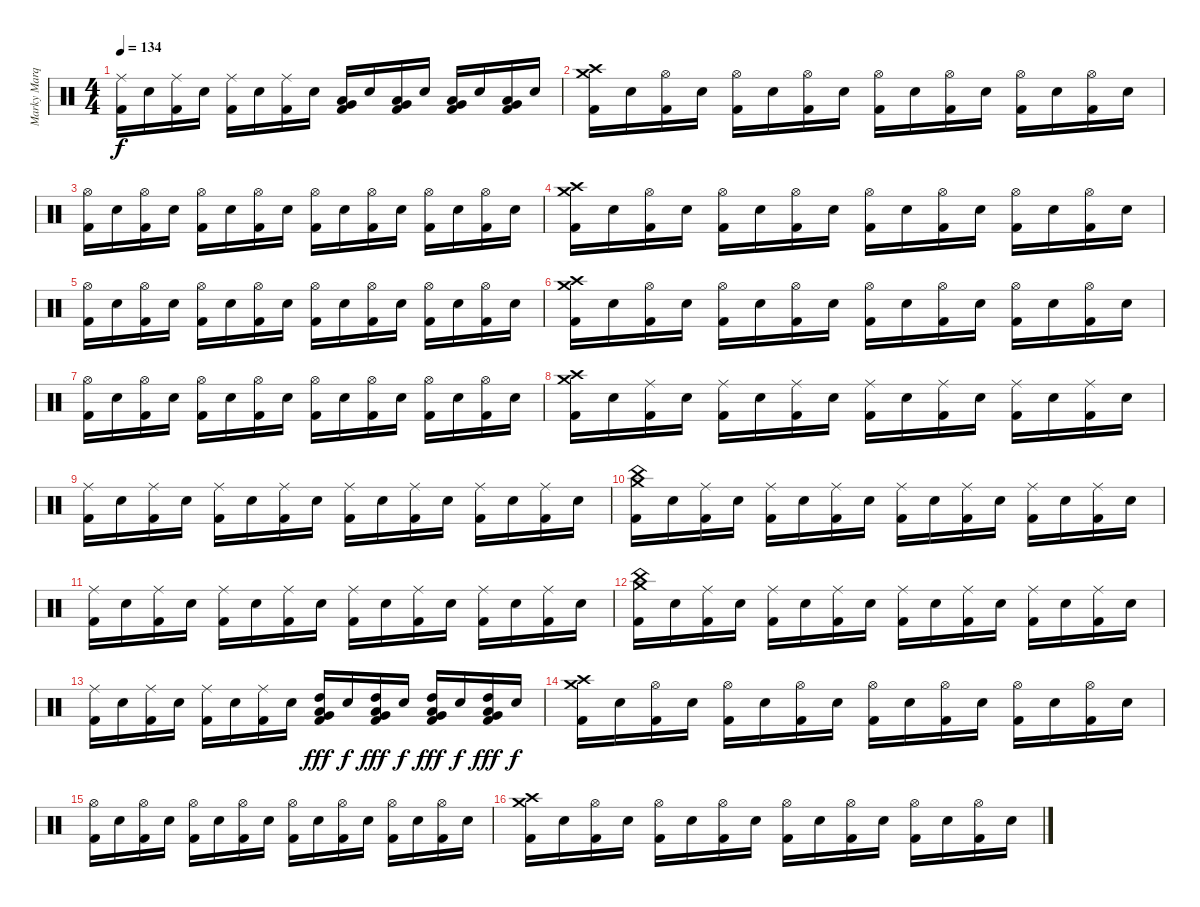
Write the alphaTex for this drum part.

\track ("Marky Marquis" "Marky Marq") {instrument percussion}
\staff {score}
\articulation defaults
\ts (4 4)
\tempo 134
\clef neutral
\ks c
("Ride (middle)" "Kick (hit) 2").16{dy f} "Electric Snare (hit)".16 ("Ride (middle)" "Kick (hit) 2").16 "Electric Snare (hit)".16 ("Ride (middle)" "Kick (hit) 2").16 "Electric Snare (hit)".16 ("Ride (middle)" "Kick (hit) 2").16 "Electric Snare (hit)".16 ("Low Tom (hit)" "Very Low Tom (hit)" "Kick (hit) 2").16 "Electric Snare (hit)".16 ("Low Tom (hit)" "Very Low Tom (hit)" "Kick (hit) 2").16 "Electric Snare (hit)".16 ("Low Tom (hit)" "Very Low Tom (hit)" "Kick (hit) 2").16 "Electric Snare (hit)".16 ("Low Tom (hit)" "Very Low Tom (hit)" "Kick (hit) 2").16 "Electric Snare (hit)".16 |
("Crash medium (hit)" "Crash high (hit)" "Kick (hit) 2").16 "Electric Snare (hit)".16 ("Hi-Hat (open)" "Kick (hit) 2").16 "Electric Snare (hit)".16 ("Hi-Hat (open)" "Kick (hit) 2").16 "Electric Snare (hit)".16 ("Hi-Hat (open)" "Kick (hit) 2").16 "Electric Snare (hit)".16 ("Hi-Hat (open)" "Kick (hit) 2").16 "Electric Snare (hit)".16 ("Hi-Hat (open)" "Kick (hit) 2").16 "Electric Snare (hit)".16 ("Hi-Hat (open)" "Kick (hit) 2").16 "Electric Snare (hit)".16 ("Hi-Hat (open)" "Kick (hit) 2").16 "Electric Snare (hit)".16 |
("Hi-Hat (open)" "Kick (hit) 2").16 "Electric Snare (hit)".16 ("Hi-Hat (open)" "Kick (hit) 2").16 "Electric Snare (hit)".16 ("Hi-Hat (open)" "Kick (hit) 2").16 "Electric Snare (hit)".16 ("Hi-Hat (open)" "Kick (hit) 2").16 "Electric Snare (hit)".16 ("Hi-Hat (open)" "Kick (hit) 2").16 "Electric Snare (hit)".16 ("Hi-Hat (open)" "Kick (hit) 2").16 "Electric Snare (hit)".16 ("Hi-Hat (open)" "Kick (hit) 2").16 "Electric Snare (hit)".16 ("Hi-Hat (open)" "Kick (hit) 2").16 "Electric Snare (hit)".16 |
("Crash medium (hit)" "Crash high (hit)" "Kick (hit) 2").16 "Electric Snare (hit)".16 ("Hi-Hat (open)" "Kick (hit) 2").16 "Electric Snare (hit)".16 ("Hi-Hat (open)" "Kick (hit) 2").16 "Electric Snare (hit)".16 ("Hi-Hat (open)" "Kick (hit) 2").16 "Electric Snare (hit)".16 ("Hi-Hat (open)" "Kick (hit) 2").16 "Electric Snare (hit)".16 ("Hi-Hat (open)" "Kick (hit) 2").16 "Electric Snare (hit)".16 ("Hi-Hat (open)" "Kick (hit) 2").16 "Electric Snare (hit)".16 ("Hi-Hat (open)" "Kick (hit) 2").16 "Electric Snare (hit)".16 |
("Hi-Hat (open)" "Kick (hit) 2").16 "Electric Snare (hit)".16 ("Hi-Hat (open)" "Kick (hit) 2").16 "Electric Snare (hit)".16 ("Hi-Hat (open)" "Kick (hit) 2").16 "Electric Snare (hit)".16 ("Hi-Hat (open)" "Kick (hit) 2").16 "Electric Snare (hit)".16 ("Hi-Hat (open)" "Kick (hit) 2").16 "Electric Snare (hit)".16 ("Hi-Hat (open)" "Kick (hit) 2").16 "Electric Snare (hit)".16 ("Hi-Hat (open)" "Kick (hit) 2").16 "Electric Snare (hit)".16 ("Hi-Hat (open)" "Kick (hit) 2").16 "Electric Snare (hit)".16 |
("Crash medium (hit)" "Crash high (hit)" "Kick (hit) 2").16 "Electric Snare (hit)".16 ("Hi-Hat (open)" "Kick (hit) 2").16 "Electric Snare (hit)".16 ("Hi-Hat (open)" "Kick (hit) 2").16 "Electric Snare (hit)".16 ("Hi-Hat (open)" "Kick (hit) 2").16 "Electric Snare (hit)".16 ("Hi-Hat (open)" "Kick (hit) 2").16 "Electric Snare (hit)".16 ("Hi-Hat (open)" "Kick (hit) 2").16 "Electric Snare (hit)".16 ("Hi-Hat (open)" "Kick (hit) 2").16 "Electric Snare (hit)".16 ("Hi-Hat (open)" "Kick (hit) 2").16 "Electric Snare (hit)".16 |
("Hi-Hat (open)" "Kick (hit) 2").16 "Electric Snare (hit)".16 ("Hi-Hat (open)" "Kick (hit) 2").16 "Electric Snare (hit)".16 ("Hi-Hat (open)" "Kick (hit) 2").16 "Electric Snare (hit)".16 ("Hi-Hat (open)" "Kick (hit) 2").16 "Electric Snare (hit)".16 ("Hi-Hat (open)" "Kick (hit) 2").16 "Electric Snare (hit)".16 ("Hi-Hat (open)" "Kick (hit) 2").16 "Electric Snare (hit)".16 ("Hi-Hat (open)" "Kick (hit) 2").16 "Electric Snare (hit)".16 ("Hi-Hat (open)" "Kick (hit) 2").16 "Electric Snare (hit)".16 |
("Crash high (hit)" "Crash medium (hit)" "Kick (hit) 2").16 "Electric Snare (hit)".16 ("Ride (middle)" "Kick (hit) 2").16 "Electric Snare (hit)".16 ("Ride (middle)" "Kick (hit) 2").16 "Electric Snare (hit)".16 ("Ride (middle)" "Kick (hit) 2").16 "Electric Snare (hit)".16 ("Ride (middle)" "Kick (hit) 2").16 "Electric Snare (hit)".16 ("Ride (middle)" "Kick (hit) 2").16 "Electric Snare (hit)".16 ("Ride (middle)" "Kick (hit) 2").16 "Electric Snare (hit)".16 ("Ride (middle)" "Kick (hit) 2").16 "Electric Snare (hit)".16 |
("Ride (middle)" "Kick (hit) 2").16 "Electric Snare (hit)".16 ("Ride (middle)" "Kick (hit) 2").16 "Electric Snare (hit)".16 ("Ride (middle)" "Kick (hit) 2").16 "Electric Snare (hit)".16 ("Ride (middle)" "Kick (hit) 2").16 "Electric Snare (hit)".16 ("Ride (middle)" "Kick (hit) 2").16 "Electric Snare (hit)".16 ("Ride (middle)" "Kick (hit) 2").16 "Electric Snare (hit)".16 ("Ride (middle)" "Kick (hit) 2").16 "Electric Snare (hit)".16 ("Ride (middle)" "Kick (hit) 2").16 "Electric Snare (hit)".16 |
("Crash medium (hit)" "China (hit)" "Kick (hit) 2").16 "Electric Snare (hit)".16 ("Ride (middle)" "Kick (hit) 2").16 "Electric Snare (hit)".16 ("Ride (middle)" "Kick (hit) 2").16 "Electric Snare (hit)".16 ("Ride (middle)" "Kick (hit) 2").16 "Electric Snare (hit)".16 ("Ride (middle)" "Kick (hit) 2").16 "Electric Snare (hit)".16 ("Ride (middle)" "Kick (hit) 2").16 "Electric Snare (hit)".16 ("Ride (middle)" "Kick (hit) 2").16 "Electric Snare (hit)".16 ("Ride (middle)" "Kick (hit) 2").16 "Electric Snare (hit)".16 |
("Ride (middle)" "Kick (hit) 2").16 "Electric Snare (hit)".16 ("Ride (middle)" "Kick (hit) 2").16 "Electric Snare (hit)".16 ("Ride (middle)" "Kick (hit) 2").16 "Electric Snare (hit)".16 ("Ride (middle)" "Kick (hit) 2").16 "Electric Snare (hit)".16 ("Ride (middle)" "Kick (hit) 2").16 "Electric Snare (hit)".16 ("Ride (middle)" "Kick (hit) 2").16 "Electric Snare (hit)".16 ("Ride (middle)" "Kick (hit) 2").16 "Electric Snare (hit)".16 ("Ride (middle)" "Kick (hit) 2").16 "Electric Snare (hit)".16 |
("Crash medium (hit)" "China (hit)" "Kick (hit) 2").16 "Electric Snare (hit)".16 ("Ride (middle)" "Kick (hit) 2").16 "Electric Snare (hit)".16 ("Ride (middle)" "Kick (hit) 2").16 "Electric Snare (hit)".16 ("Ride (middle)" "Kick (hit) 2").16 "Electric Snare (hit)".16 ("Ride (middle)" "Kick (hit) 2").16 "Electric Snare (hit)".16 ("Ride (middle)" "Kick (hit) 2").16 "Electric Snare (hit)".16 ("Ride (middle)" "Kick (hit) 2").16 "Electric Snare (hit)".16 ("Ride (middle)" "Kick (hit) 2").16 "Electric Snare (hit)".16 |
("Ride (middle)" "Kick (hit) 2").16 "Electric Snare (hit)".16 ("Ride (middle)" "Kick (hit) 2").16 "Electric Snare (hit)".16 ("Ride (middle)" "Kick (hit) 2").16 "Electric Snare (hit)".16 ("Ride (middle)" "Kick (hit) 2").16 "Electric Snare (hit)".16 ("High Tom (hit)" "Low Tom (hit)" "Very Low Tom (hit)" "Kick (hit) 2").16{dy fff} "Electric Snare (hit)".16{dy f} ("High Tom (hit)" "Low Tom (hit)" "Very Low Tom (hit)" "Kick (hit) 2").16{dy fff} "Electric Snare (hit)".16{dy f} ("High Tom (hit)" "Low Tom (hit)" "Very Low Tom (hit)" "Kick (hit) 2").16{dy fff} "Electric Snare (hit)".16{dy f} ("High Tom (hit)" "Low Tom (hit)" "Very Low Tom (hit)" "Kick (hit) 2").16{dy fff} "Electric Snare (hit)".16{dy f} |
("Crash medium (hit)" "Crash high (hit)" "Kick (hit) 2").16 "Electric Snare (hit)".16 ("Hi-Hat (open)" "Kick (hit) 2").16 "Electric Snare (hit)".16 ("Hi-Hat (open)" "Kick (hit) 2").16 "Electric Snare (hit)".16 ("Hi-Hat (open)" "Kick (hit) 2").16 "Electric Snare (hit)".16 ("Hi-Hat (open)" "Kick (hit) 2").16 "Electric Snare (hit)".16 ("Hi-Hat (open)" "Kick (hit) 2").16 "Electric Snare (hit)".16 ("Hi-Hat (open)" "Kick (hit) 2").16 "Electric Snare (hit)".16 ("Hi-Hat (open)" "Kick (hit) 2").16 "Electric Snare (hit)".16 |
("Hi-Hat (open)" "Kick (hit) 2").16 "Electric Snare (hit)".16 ("Hi-Hat (open)" "Kick (hit) 2").16 "Electric Snare (hit)".16 ("Hi-Hat (open)" "Kick (hit) 2").16 "Electric Snare (hit)".16 ("Hi-Hat (open)" "Kick (hit) 2").16 "Electric Snare (hit)".16 ("Hi-Hat (open)" "Kick (hit) 2").16 "Electric Snare (hit)".16 ("Hi-Hat (open)" "Kick (hit) 2").16 "Electric Snare (hit)".16 ("Hi-Hat (open)" "Kick (hit) 2").16 "Electric Snare (hit)".16 ("Hi-Hat (open)" "Kick (hit) 2").16 "Electric Snare (hit)".16 |
("Crash medium (hit)" "Crash high (hit)" "Kick (hit) 2").16 "Electric Snare (hit)".16 ("Hi-Hat (open)" "Kick (hit) 2").16 "Electric Snare (hit)".16 ("Hi-Hat (open)" "Kick (hit) 2").16 "Electric Snare (hit)".16 ("Hi-Hat (open)" "Kick (hit) 2").16 "Electric Snare (hit)".16 ("Hi-Hat (open)" "Kick (hit) 2").16 "Electric Snare (hit)".16 ("Hi-Hat (open)" "Kick (hit) 2").16 "Electric Snare (hit)".16 ("Hi-Hat (open)" "Kick (hit) 2").16 "Electric Snare (hit)".16 ("Hi-Hat (open)" "Kick (hit) 2").16 "Electric Snare (hit)".16
